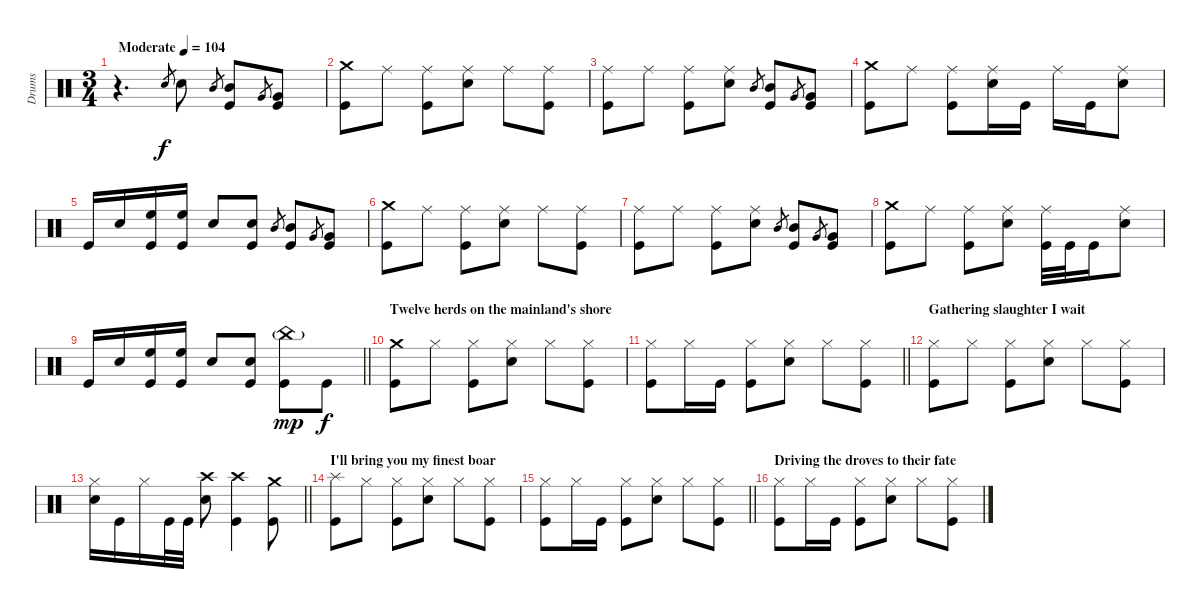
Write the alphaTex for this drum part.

\track ("Drums" "Drums") {instrument percussion}
\staff {score}
\articulation defaults
\ts (3 4)
\tempo (104 "Moderate")
\clef neutral
\ks c
r.4{d dy f} "Snare (hit) 2".8{gr} "Snare (hit) 2".8 "Mid Tom (hit)".8{gr} ("Mid Tom (hit)" "Kick (hit)").8 "Very Low Tom (hit)".8{gr} ("Very Low Tom (hit)" "Kick (hit)").8 |
("Crash medium (hit)" "Kick (hit)").8 "Ride (middle)".8 ("Ride (middle)" "Kick (hit)").8 ("Ride (middle)" "Snare (hit) 2").8 "Ride (middle)".8 ("Ride (middle)" "Kick (hit)").8 |
("Ride (middle)" "Kick (hit)").8 "Ride (middle)".8 ("Ride (middle)" "Kick (hit)").8 ("Ride (middle)" "Snare (hit) 2").8 "Mid Tom (hit)".8{gr} ("Mid Tom (hit)" "Kick (hit)").8 "Very Low Tom (hit)".8{gr} ("Very Low Tom (hit)" "Kick (hit)").8 |
("Crash medium (hit)" "Kick (hit)").8 "Ride (middle)".8 ("Ride (middle)" "Kick (hit)").8 ("Ride (middle)" "Snare (hit) 2").16 "Kick (hit)".16 "Ride (middle)".16 "Kick (hit)".16 ("Ride (middle)" "Snare (hit) 2").8 |
"Kick (hit)".16 "Snare (hit) 2".16 ("High Floor Tom (hit)" "Kick (hit)").16 ("High Floor Tom (hit)" "Kick (hit)").16 "Snare (hit) 2".8 ("Snare (hit) 2" "Kick (hit)").8 "Mid Tom (hit)".8{gr} ("Mid Tom (hit)" "Kick (hit)").8 "Very Low Tom (hit)".8{gr} ("Very Low Tom (hit)" "Kick (hit)").8 |
("Crash medium (hit)" "Kick (hit)").8 "Ride (middle)".8 ("Ride (middle)" "Kick (hit)").8 ("Ride (middle)" "Snare (hit) 2").8 "Ride (middle)".8 ("Ride (middle)" "Kick (hit)").8 |
("Ride (middle)" "Kick (hit)").8 "Ride (middle)".8 ("Ride (middle)" "Kick (hit)").8 ("Ride (middle)" "Snare (hit) 2").8 "Mid Tom (hit)".8{gr} ("Mid Tom (hit)" "Kick (hit)").8 "Very Low Tom (hit)".8{gr} ("Very Low Tom (hit)" "Kick (hit)").8 |
("Crash medium (hit)" "Kick (hit)").8 "Ride (middle)".8 ("Ride (middle)" "Kick (hit)").8 ("Ride (middle)" "Snare (hit) 2").8 ("Ride (middle)" "Kick (hit)").32 "Kick (hit)".32 "Kick (hit)".16 ("Ride (middle)" "Snare (hit) 2").8 |
\barLineRight lightlight "Kick (hit)".16 "Snare (hit) 2".16
("High Floor Tom (hit)" "Kick (hit)").16 ("High Floor Tom (hit)" "Kick (hit)").16 "Snare (hit) 2".8 ("Snare (hit) 2" "Kick (hit)").8 ("China (hit)"{g} "Kick (hit)").8{dy mp} "Kick (hit)".8{dy f} |
\section ("" "Twelve herds on the mainland's shore")
("Crash medium (hit)" "Kick (hit)").8 "Hi-Hat (closed)".8 ("Hi-Hat (closed)" "Kick (hit)").8 ("Hi-Hat (closed)" "Snare (hit) 2").8 "Hi-Hat (closed)".8 ("Hi-Hat (closed)" "Kick (hit)").8 |
\barLineRight lightlight
("Hi-Hat (closed)" "Kick (hit)").8 "Hi-Hat (closed)".16 "Kick (hit)".16 ("Hi-Hat (closed)" "Kick (hit)").8 ("Hi-Hat (closed)" "Snare (hit) 2").8 "Hi-Hat (closed)".8 ("Hi-Hat (closed)" "Kick (hit)").8 |
\section ("" "Gathering slaughter I wait")
("Hi-Hat (closed)" "Kick (hit)").8 "Hi-Hat (closed)".8 ("Hi-Hat (closed)" "Kick (hit)").8 ("Hi-Hat (closed)" "Snare (hit) 2").8 "Hi-Hat (closed)".8 ("Hi-Hat (closed)" "Kick (hit)").8 |
\barLineRight lightlight
("Hi-Hat (closed)" "Snare (hit) 2").16 "Kick (hit)".16 "Hi-Hat (closed)".16 "Kick (hit)".32 "Kick (hit)".32 ("Crash high (hit)" "Snare (hit) 2").8 ("Crash high (hit)" "Kick (hit)").4 ("Crash medium (hit)" "Kick (hit)").8 |
\section ("" "I'll bring you my finest boar")
("Splash (hit)" "Kick (hit)").8 "Hi-Hat (closed)".8 ("Hi-Hat (closed)" "Kick (hit)").8 ("Hi-Hat (closed)" "Snare (hit) 2").8 "Hi-Hat (closed)".8 ("Hi-Hat (closed)" "Kick (hit)").8 |
\barLineRight lightlight
("Hi-Hat (closed)" "Kick (hit)").8 "Hi-Hat (closed)".16 "Kick (hit)".16 ("Hi-Hat (closed)" "Kick (hit)").8 ("Hi-Hat (closed)" "Snare (hit) 2").8 "Hi-Hat (closed)".8 ("Hi-Hat (closed)" "Kick (hit)").8 |
\section ("" "Driving the droves to their fate")
("Hi-Hat (closed)" "Kick (hit)").8 "Hi-Hat (closed)".16 "Kick (hit)".16 ("Hi-Hat (closed)" "Kick (hit)").8 ("Hi-Hat (closed)" "Snare (hit) 2").8 "Hi-Hat (closed)".8 ("Hi-Hat (closed)" "Kick (hit)").8
